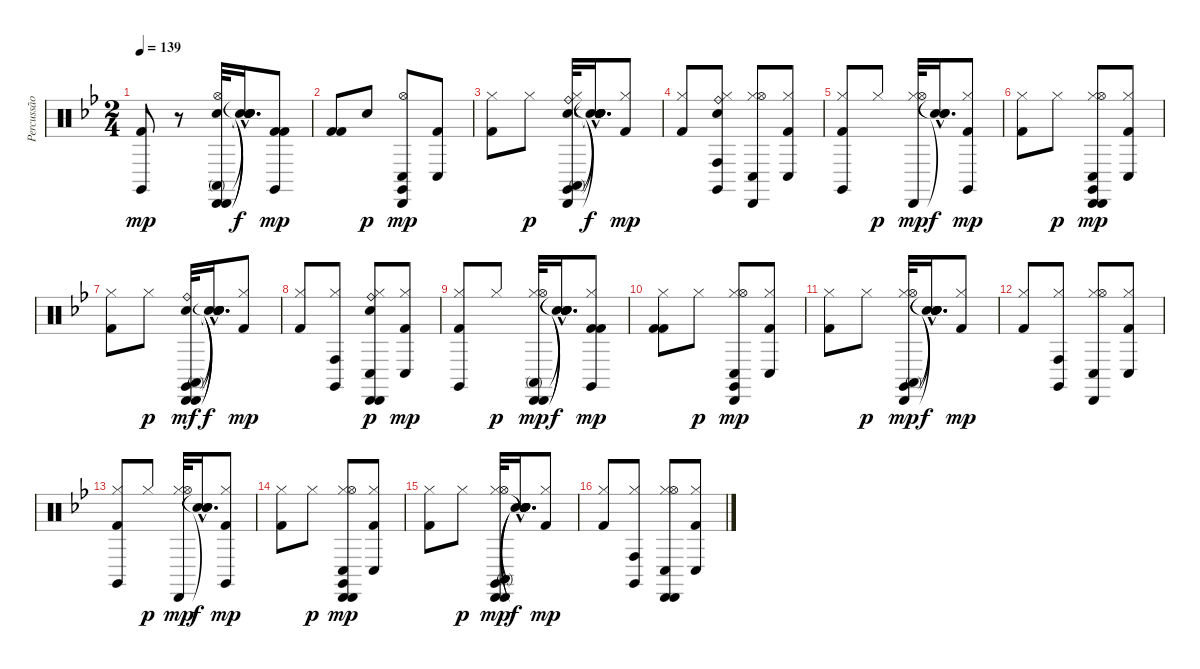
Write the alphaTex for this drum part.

\track ("Percussão" "Percussão") {instrument percussion}
\staff {score}
\articulation defaults
\ts (2 4)
\tempo 139
\clef neutral
\ks bb
("Claves (hit)" "Kick (hit) 2").8{dy mp} r.8 ("Conga high (mute)" "Cabasa (hit)" "Cabasa (hit)" "Electric Snare (hit)" "Hi-Hat (open)").32 ("Snare (hit)"{hac t} "Snare (hit)"{hac t} "Snare (hit)"{hac t} "Snare (hit)"{hac t} "Snare (hit)"{hac t}).16{d dy f} ("Claves (hit)" "Kick (hit) 2" "Kick (hit) 2").8{dy mp} |
("Kick (hit) 2" "Kick (hit) 2").8 "Electric Snare (hit)".8{dy p} ("Cabasa (hit)" "Conga low (hit)" "Claves (hit)" "Hi-Hat (open)").8{dy mp} ("Conga low (hit)" "Kick (hit) 2").8 |
("Hi-Hat (closed)" "Kick (hit) 2").8 "Hi-Hat (closed)".8{dy p} ("Conga high (mute)" "Cabasa (hit)" "Electric Snare (hit)" "Ride (bell)" "Claves (hit)" "Hi-Hat (closed)").32 ("Snare (hit)"{hac t} "Snare (hit)"{hac t} "Snare (hit)"{hac t} "Snare (hit)"{hac t} "Snare (hit)"{hac t} "Snare (hit)"{hac t}).16{d dy f} ("Hi-Hat (closed)" "Kick (hit) 2").8{dy mp} |
("Hi-Hat (closed)" "Kick (hit) 2").8 ("Hi-Hat (closed)" "Claves (hit)" "Ride (bell)" "Electric Snare (hit)" "Conga high (hit)").8 ("Cabasa (hit)" "Conga low (hit)" "Hi-Hat (closed)" "Hi-Hat (open)").8 ("Hi-Hat (closed)" "Conga low (hit)" "Kick (hit) 2").8 |
("Hi-Hat (closed)" "Claves (hit)" "Kick (hit) 2").8 "Hi-Hat (closed)".8{dy p} ("Cabasa (hit)" "Hi-Hat (closed)" "Hi-Hat (open)").32{dy mp} ("Snare (hit)"{hac t} "Snare (hit)"{hac t} "Snare (hit)"{hac t}).16{d dy f} ("Hi-Hat (closed)" "Claves (hit)" "Kick (hit) 2").8{dy mp} |
("Hi-Hat (closed)" "Kick (hit) 2").8 "Hi-Hat (closed)".8{dy p} ("Cabasa (hit)" "Cabasa (hit)" "Conga low (hit)" "Claves (hit)" "Hi-Hat (closed)" "Hi-Hat (open)").8{dy mp} ("Hi-Hat (closed)" "Conga low (hit)" "Kick (hit) 2").8 |
("Hi-Hat (closed)" "Kick (hit) 2").8 "Hi-Hat (closed)".8{dy p} ("Conga high (mute)" "Cabasa (hit)" "Cabasa (hit)" "Ride (bell)" "Electric Snare (hit)" "Claves (hit)").32{dy mf} ("Snare (hit)"{hac t} "Snare (hit)"{hac t} "Snare (hit)"{hac t} "Snare (hit)"{hac t} "Snare (hit)"{hac t} "Snare (hit)"{hac t}).16{d dy f} ("Hi-Hat (closed)" "Kick (hit) 2").8{dy mp} |
("Hi-Hat (closed)" "Kick (hit) 2").8 ("Hi-Hat (closed)" "Claves (hit)" "Conga high (hit)").8 ("Cabasa (hit)" "Cabasa (hit)" "Electric Snare (hit)" "Ride (bell)" "Conga low (hit)" "Hi-Hat (closed)").8{dy p} ("Hi-Hat (closed)" "Conga low (hit)" "Kick (hit) 2").8{dy mp} |
("Hi-Hat (closed)" "Claves (hit)" "Kick (hit) 2").8 "Hi-Hat (closed)".8{dy p} ("Conga high (mute)" "Cabasa (hit)" "Cabasa (hit)" "Hi-Hat (closed)" "Hi-Hat (open)").32{dy mp} ("Snare (hit)"{hac t} "Snare (hit)"{hac t} "Snare (hit)"{hac t} "Snare (hit)"{hac t} "Snare (hit)"{hac t}).16{d dy f} ("Hi-Hat (closed)" "Claves (hit)" "Kick (hit) 2" "Kick (hit) 2").8{dy mp} |
("Hi-Hat (closed)" "Kick (hit) 2" "Kick (hit) 2").8 "Hi-Hat (closed)".8{dy p} ("Cabasa (hit)" "Conga low (hit)" "Claves (hit)" "Hi-Hat (closed)" "Hi-Hat (open)").8{dy mp} ("Hi-Hat (closed)" "Conga low (hit)" "Kick (hit) 2").8 |
("Hi-Hat (closed)" "Kick (hit) 2").8 "Hi-Hat (closed)".8{dy p} ("Conga high (mute)" "Cabasa (hit)" "Claves (hit)" "Hi-Hat (closed)" "Hi-Hat (open)").32{dy mp} ("Snare (hit)"{hac t} "Snare (hit)"{hac t} "Snare (hit)"{hac t} "Snare (hit)"{hac t} "Snare (hit)"{hac t}).16{d dy f} ("Hi-Hat (closed)" "Kick (hit) 2").8{dy mp} |
("Hi-Hat (closed)" "Kick (hit) 2").8 ("Hi-Hat (closed)" "Claves (hit)" "Conga high (hit)").8 ("Cabasa (hit)" "Conga low (hit)" "Hi-Hat (closed)" "Hi-Hat (open)").8 ("Hi-Hat (closed)" "Conga low (hit)" "Kick (hit) 2").8 |
("Hi-Hat (closed)" "Claves (hit)" "Kick (hit) 2").8 "Hi-Hat (closed)".8{dy p} ("Cabasa (hit)" "Hi-Hat (closed)" "Hi-Hat (open)").32{dy mp} ("Snare (hit)"{hac t} "Snare (hit)"{hac t} "Snare (hit)"{hac t}).16{d dy f} ("Hi-Hat (closed)" "Claves (hit)" "Kick (hit) 2").8{dy mp} |
("Hi-Hat (closed)" "Kick (hit) 2").8 "Hi-Hat (closed)".8{dy p} ("Cabasa (hit)" "Cabasa (hit)" "Conga low (hit)" "Claves (hit)" "Hi-Hat (closed)" "Hi-Hat (open)").8{dy mp} ("Hi-Hat (closed)" "Conga low (hit)" "Kick (hit) 2").8 |
("Hi-Hat (closed)" "Kick (hit) 2").8 "Hi-Hat (closed)".8{dy p} ("Conga high (mute)" "Cabasa (hit)" "Cabasa (hit)" "Claves (hit)" "Hi-Hat (closed)" "Hi-Hat (open)").32{dy mp} ("Snare (hit)"{hac t} "Snare (hit)"{hac t} "Snare (hit)"{hac t} "Snare (hit)"{hac t} "Snare (hit)"{hac t} "Snare (hit)"{hac t}).16{d dy f} ("Hi-Hat (closed)" "Kick (hit) 2").8{dy mp} |
("Hi-Hat (closed)" "Kick (hit) 2").8 ("Hi-Hat (closed)" "Claves (hit)" "Conga high (hit)").8 ("Cabasa (hit)" "Cabasa (hit)" "Conga low (hit)" "Hi-Hat (closed)" "Hi-Hat (open)").8 ("Hi-Hat (closed)" "Conga low (hit)" "Kick (hit) 2").8
